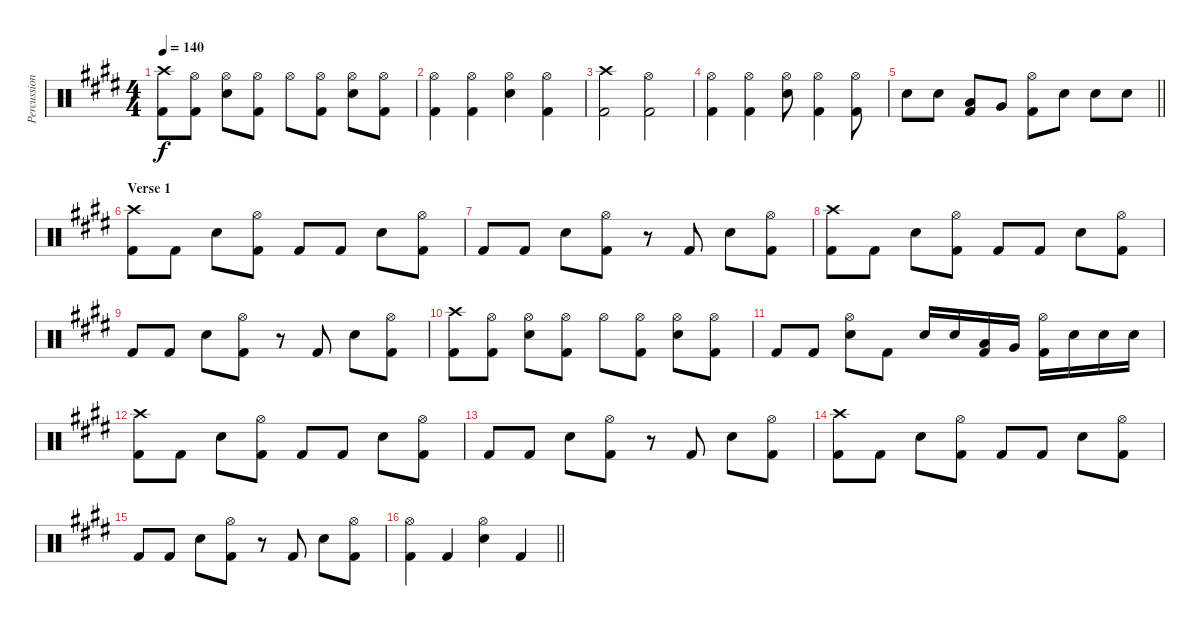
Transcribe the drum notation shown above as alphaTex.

\track ("Percussion" "Percussion") {instrument percussion}
\staff {score}
\articulation defaults
\ts (4 4)
\tempo 140
\clef neutral
\ks e
("Crash high (hit)" "Kick (hit) 2").8{dy f} ("Hi-Hat (open)" "Kick (hit) 2").8 ("Hi-Hat (open)" "Electric Snare (hit)").8 ("Hi-Hat (open)" "Kick (hit) 2").8 "Hi-Hat (open)".8 ("Hi-Hat (open)" "Kick (hit) 2").8 ("Hi-Hat (open)" "Electric Snare (hit)").8 ("Hi-Hat (open)" "Kick (hit) 2").8 |
("Hi-Hat (open)" "Kick (hit) 2").4 ("Hi-Hat (open)" "Kick (hit) 2").4 ("Hi-Hat (open)" "Electric Snare (hit)").4 ("Hi-Hat (open)" "Kick (hit) 2").4 |
("Crash high (hit)" "Kick (hit) 2").2 ("Hi-Hat (open)" "Kick (hit) 2").2 |
("Hi-Hat (open)" "Kick (hit) 2").4 ("Hi-Hat (open)" "Kick (hit) 2").4 ("Hi-Hat (open)" "Electric Snare (hit)").8 ("Hi-Hat (open)" "Kick (hit) 2").4 ("Hi-Hat (open)" "Kick (hit) 2").8 |
\barLineRight lightlight "Electric Snare (hit)".8 "Electric Snare (hit)".8
("Low Tom (hit)" "Kick (hit) 2").8 "Very Low Tom (hit)".8 ("Hi-Hat (open)" "Kick (hit) 2").8 "Electric Snare (hit)".8 "Electric Snare (hit)".8 "Electric Snare (hit)".8 |
\section ("" "Verse 1")
("Crash high (hit)" "Kick (hit) 2").8 "Kick (hit) 2".8 "Electric Snare (hit)".8 ("Hi-Hat (open)" "Kick (hit) 2").8 "Kick (hit) 2".8 "Kick (hit) 2".8 "Electric Snare (hit)".8 ("Hi-Hat (open)" "Kick (hit) 2").8 |
"Kick (hit) 2".8 "Kick (hit) 2".8 "Electric Snare (hit)".8 ("Hi-Hat (open)" "Kick (hit) 2").8 r.8 "Kick (hit) 2".8 "Electric Snare (hit)".8 ("Hi-Hat (open)" "Kick (hit) 2").8 |
("Crash high (hit)" "Kick (hit) 2").8 "Kick (hit) 2".8 "Electric Snare (hit)".8 ("Hi-Hat (open)" "Kick (hit) 2").8 "Kick (hit) 2".8 "Kick (hit) 2".8 "Electric Snare (hit)".8 ("Hi-Hat (open)" "Kick (hit) 2").8 |
"Kick (hit) 2".8 "Kick (hit) 2".8 "Electric Snare (hit)".8 ("Hi-Hat (open)" "Kick (hit) 2").8 r.8 "Kick (hit) 2".8 "Electric Snare (hit)".8 ("Hi-Hat (open)" "Kick (hit) 2").8 |
("Crash high (hit)" "Kick (hit) 2").8 ("Hi-Hat (open)" "Kick (hit) 2").8 ("Hi-Hat (open)" "Electric Snare (hit)").8 ("Hi-Hat (open)" "Kick (hit) 2").8 "Hi-Hat (open)".8 ("Hi-Hat (open)" "Kick (hit) 2").8 ("Hi-Hat (open)" "Electric Snare (hit)").8 ("Hi-Hat (open)" "Kick (hit) 2").8 |
"Kick (hit) 2".8 "Kick (hit) 2".8 ("Hi-Hat (open)" "Electric Snare (hit)").8 "Kick (hit) 2".8 "Electric Snare (hit)".16 "Electric Snare (hit)".16 ("Low Tom (hit)" "Kick (hit) 2").16 "Very Low Tom (hit)".16 ("Hi-Hat (open)" "Kick (hit) 2").16 "Electric Snare (hit)".16 "Electric Snare (hit)".16 "Electric Snare (hit)".16 |
("Crash high (hit)" "Kick (hit) 2").8 "Kick (hit) 2".8 "Electric Snare (hit)".8 ("Hi-Hat (open)" "Kick (hit) 2").8 "Kick (hit) 2".8 "Kick (hit) 2".8 "Electric Snare (hit)".8 ("Hi-Hat (open)" "Kick (hit) 2").8 |
"Kick (hit) 2".8 "Kick (hit) 2".8 "Electric Snare (hit)".8 ("Hi-Hat (open)" "Kick (hit) 2").8 r.8 "Kick (hit) 2".8 "Electric Snare (hit)".8 ("Hi-Hat (open)" "Kick (hit) 2").8 |
("Crash high (hit)" "Kick (hit) 2").8 "Kick (hit) 2".8 "Electric Snare (hit)".8 ("Hi-Hat (open)" "Kick (hit) 2").8 "Kick (hit) 2".8 "Kick (hit) 2".8 "Electric Snare (hit)".8 ("Hi-Hat (open)" "Kick (hit) 2").8 |
"Kick (hit) 2".8 "Kick (hit) 2".8 "Electric Snare (hit)".8 ("Hi-Hat (open)" "Kick (hit) 2").8 r.8 "Kick (hit) 2".8 "Electric Snare (hit)".8 ("Hi-Hat (open)" "Kick (hit) 2").8 |
\barLineRight lightlight
("Hi-Hat (open)" "Kick (hit) 2").4 "Kick (hit) 2".4 ("Hi-Hat (open)" "Electric Snare (hit)").4 "Kick (hit) 2".4
